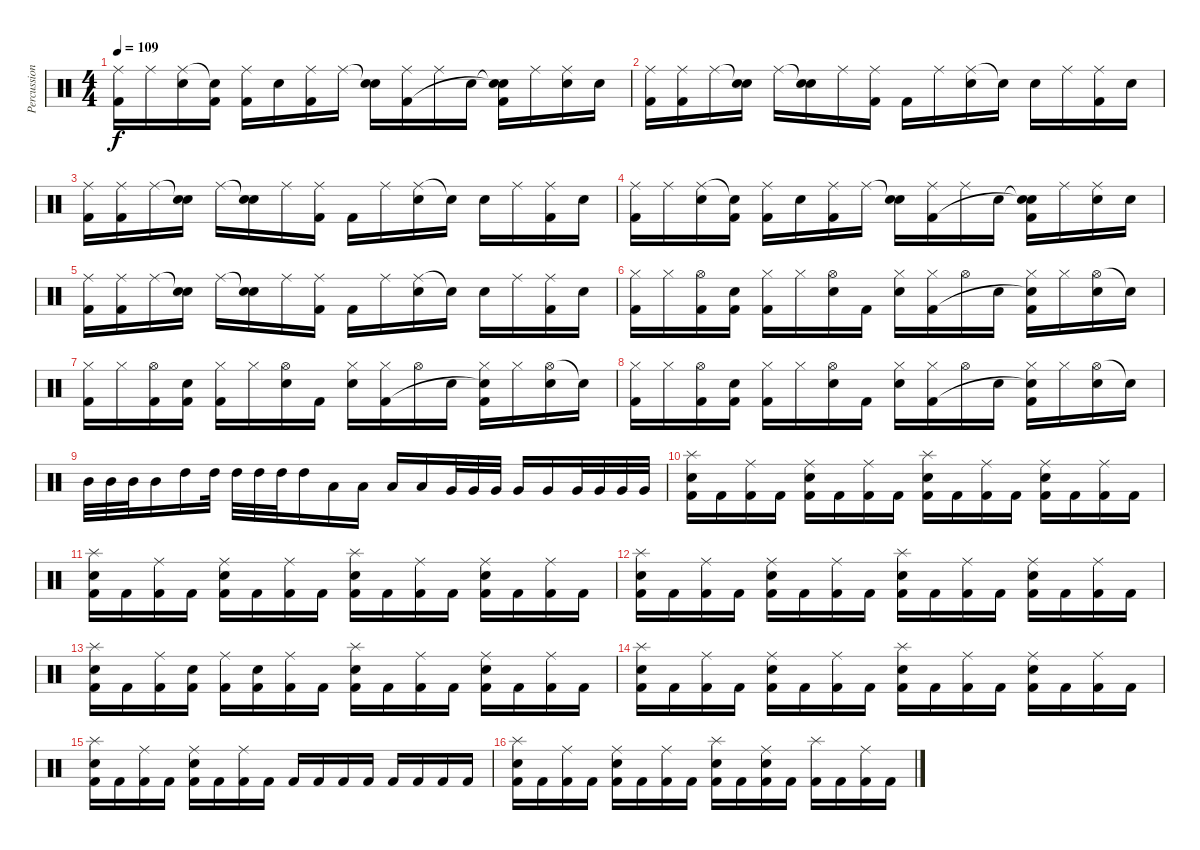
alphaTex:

\track ("Percussions" "Percussion") {instrument percussion}
\staff {score}
\articulation defaults
\ts (4 4)
\tempo 109
\clef neutral
\ks c
("Ride (middle)" "Kick (hit) 2").16{dy f} "Ride (middle)".16 ("Ride (middle)" "Electric Snare (hit)").16 ("Electric Snare (hit)"{t} "Kick (hit) 2").16 ("Ride (middle)" "Kick (hit) 2").16 "Electric Snare (hit)".16 ("Ride (middle)" "Kick (hit) 2").16 "Ride (middle)".16 ("Snare (hit)"{t} "Electric Snare (hit)").16 ("Ride (middle)" "Kick (hit) 2").16 "Ride (middle)".16 "Electric Snare (hit)".16 ("Snare (hit)"{t} "Snare (hit)"{t} "Kick (hit) 2").16 "Ride (middle)".16 ("Ride (middle)" "Electric Snare (hit)").16 "Electric Snare (hit)".16 |
("Ride (middle)" "Kick (hit) 2").16 ("Ride (middle)" "Kick (hit) 2").16 "Ride (middle)".16 ("Snare (hit)"{t} "Electric Snare (hit)").16 "Ride (middle)".16 ("Snare (hit)"{t} "Electric Snare (hit)").16 "Ride (middle)".16 ("Ride (middle)" "Kick (hit) 2").16 "Kick (hit) 2".16 "Ride (middle)".16 ("Ride (middle)" "Electric Snare (hit)").16 "Snare (hit)"{t}.16 "Electric Snare (hit)".16 "Ride (middle)".16 ("Ride (middle)" "Kick (hit) 2").16 "Electric Snare (hit)".16 |
("Ride (middle)" "Kick (hit) 2").16 ("Ride (middle)" "Kick (hit) 2").16 "Ride (middle)".16 ("Snare (hit)"{t} "Electric Snare (hit)").16 "Ride (middle)".16 ("Snare (hit)"{t} "Electric Snare (hit)").16 "Ride (middle)".16 ("Ride (middle)" "Kick (hit) 2").16 "Kick (hit) 2".16 "Ride (middle)".16 ("Ride (middle)" "Electric Snare (hit)").16 "Snare (hit)"{t}.16 "Electric Snare (hit)".16 "Ride (middle)".16 ("Ride (middle)" "Kick (hit) 2").16 "Electric Snare (hit)".16 |
("Ride (middle)" "Kick (hit) 2").16 "Ride (middle)".16 ("Ride (middle)" "Electric Snare (hit)").16 ("Electric Snare (hit)"{t} "Kick (hit) 2").16 ("Ride (middle)" "Kick (hit) 2").16 "Electric Snare (hit)".16 ("Ride (middle)" "Kick (hit) 2").16 "Ride (middle)".16 ("Snare (hit)"{t} "Electric Snare (hit)").16 ("Ride (middle)" "Kick (hit) 2").16 "Ride (middle)".16 "Electric Snare (hit)".16 ("Snare (hit)"{t} "Snare (hit)"{t} "Kick (hit) 2").16 "Ride (middle)".16 ("Ride (middle)" "Electric Snare (hit)").16 "Electric Snare (hit)".16 |
("Ride (middle)" "Kick (hit) 2").16 ("Ride (middle)" "Kick (hit) 2").16 "Ride (middle)".16 ("Snare (hit)"{t} "Electric Snare (hit)").16 "Ride (middle)".16 ("Snare (hit)"{t} "Electric Snare (hit)").16 "Ride (middle)".16 ("Ride (middle)" "Kick (hit) 2").16 "Kick (hit) 2".16 "Ride (middle)".16 ("Ride (middle)" "Electric Snare (hit)").16 "Snare (hit)"{t}.16 "Electric Snare (hit)".16 "Ride (middle)".16 ("Ride (middle)" "Kick (hit) 2").16 "Electric Snare (hit)".16 |
("Hi-Hat (closed)" "Kick (hit) 2").16 "Hi-Hat (closed)".16 ("Hi-Hat (open)" "Kick (hit) 2").16 ("Electric Snare (hit)" "Kick (hit) 2").16 ("Hi-Hat (closed)" "Kick (hit) 2").16 "Hi-Hat (closed)".16 ("Hi-Hat (open)" "Electric Snare (hit)").16 "Kick (hit) 2".16 ("Hi-Hat (closed)" "Electric Snare (hit)").16 ("Hi-Hat (closed)" "Kick (hit) 2").16 "Hi-Hat (open)".16 "Electric Snare (hit)".16 ("Hi-Hat (closed)" "Snare (hit)"{t} "Kick (hit) 2").16 "Hi-Hat (closed)".16 ("Hi-Hat (open)" "Electric Snare (hit)").16 "Electric Snare (hit)"{t}.16 |
("Hi-Hat (closed)" "Kick (hit) 2").16 "Hi-Hat (closed)".16 ("Hi-Hat (open)" "Kick (hit) 2").16 ("Electric Snare (hit)" "Kick (hit) 2").16 ("Hi-Hat (closed)" "Kick (hit) 2").16 "Hi-Hat (closed)".16 ("Hi-Hat (open)" "Electric Snare (hit)").16 "Kick (hit) 2".16 ("Hi-Hat (closed)" "Electric Snare (hit)").16 ("Hi-Hat (closed)" "Kick (hit) 2").16 "Hi-Hat (open)".16 "Electric Snare (hit)".16 ("Hi-Hat (closed)" "Snare (hit)"{t} "Kick (hit) 2").16 "Hi-Hat (closed)".16 ("Hi-Hat (open)" "Electric Snare (hit)").16 "Electric Snare (hit)"{t}.16 |
("Hi-Hat (closed)" "Kick (hit) 2").16 "Hi-Hat (closed)".16 ("Hi-Hat (open)" "Kick (hit) 2").16 ("Electric Snare (hit)" "Kick (hit) 2").16 ("Hi-Hat (closed)" "Kick (hit) 2").16 "Hi-Hat (closed)".16 ("Hi-Hat (open)" "Electric Snare (hit)").16 "Kick (hit) 2".16 ("Hi-Hat (closed)" "Electric Snare (hit)").16 ("Hi-Hat (closed)" "Kick (hit) 2").16 "Hi-Hat (open)".16 "Electric Snare (hit)".16 ("Hi-Hat (closed)" "Snare (hit)"{t} "Kick (hit) 2").16 "Hi-Hat (closed)".16 ("Hi-Hat (open)" "Electric Snare (hit)").16 "Electric Snare (hit)"{t}.16 |
"Mid Tom (hit)".32 "Mid Tom (hit)".32 "Mid Tom (hit)".32 "Mid Tom (hit)".16 "High Tom (hit)".16 "High Tom (hit)".32 "High Tom (hit)".32 "High Tom (hit)".32 "High Tom (hit)".32 "High Tom (hit)".16 "Low Tom (hit)".16 "Low Tom (hit)".16 "Low Tom (hit)".16 "Low Tom (hit)".16 "Very Low Tom (hit)".32 "Very Low Tom (hit)".32 "Very Low Tom (hit)".32 "Very Low Tom (hit)".16 "Very Low Tom (hit)".16 "Very Low Tom (hit)".32 "Very Low Tom (hit)".32 "Very Low Tom (hit)".32 "Very Low Tom (hit)".32 |
("Splash (hit)" "Electric Snare (hit)" "Kick (hit) 2").16 "Kick (hit) 2".16 ("Ride (middle)" "Kick (hit) 2").16 "Kick (hit) 2".16 ("Ride (middle)" "Electric Snare (hit)" "Kick (hit) 2").16 "Kick (hit) 2".16 ("Ride (middle)" "Kick (hit) 2").16 "Kick (hit) 2".16 ("Splash (hit)" "Electric Snare (hit)" "Kick (hit) 2").16 "Kick (hit) 2".16 ("Ride (middle)" "Kick (hit) 2").16 "Kick (hit) 2".16 ("Ride (middle)" "Electric Snare (hit)" "Kick (hit) 2").16 "Kick (hit) 2".16 ("Ride (middle)" "Kick (hit) 2").16 "Kick (hit) 2".16 |
("Splash (hit)" "Electric Snare (hit)" "Kick (hit) 2").16 "Kick (hit) 2".16 ("Ride (middle)" "Kick (hit) 2").16 "Kick (hit) 2".16 ("Ride (middle)" "Electric Snare (hit)" "Kick (hit) 2").16 "Kick (hit) 2".16 ("Ride (middle)" "Kick (hit) 2").16 "Kick (hit) 2".16 ("Splash (hit)" "Electric Snare (hit)" "Kick (hit) 2").16 "Kick (hit) 2".16 ("Ride (middle)" "Kick (hit) 2").16 "Kick (hit) 2".16 ("Ride (middle)" "Electric Snare (hit)" "Kick (hit) 2").16 "Kick (hit) 2".16 ("Ride (middle)" "Kick (hit) 2").16 "Kick (hit) 2".16 |
("Splash (hit)" "Electric Snare (hit)" "Kick (hit) 2").16 "Kick (hit) 2".16 ("Ride (middle)" "Kick (hit) 2").16 "Kick (hit) 2".16 ("Ride (middle)" "Electric Snare (hit)" "Kick (hit) 2").16 "Kick (hit) 2".16 ("Ride (middle)" "Kick (hit) 2").16 "Kick (hit) 2".16 ("Splash (hit)" "Electric Snare (hit)" "Kick (hit) 2").16 "Kick (hit) 2".16 ("Ride (middle)" "Kick (hit) 2").16 "Kick (hit) 2".16 ("Ride (middle)" "Electric Snare (hit)" "Kick (hit) 2").16 "Kick (hit) 2".16 ("Ride (middle)" "Kick (hit) 2").16 "Kick (hit) 2".16 |
("Splash (hit)" "Electric Snare (hit)" "Kick (hit) 2").16 "Kick (hit) 2".16 ("Ride (middle)" "Kick (hit) 2").16 ("Electric Snare (hit)" "Kick (hit) 2").16 ("Ride (middle)" "Kick (hit) 2").16 ("Electric Snare (hit)" "Kick (hit) 2").16 ("Ride (middle)" "Kick (hit) 2").16 "Kick (hit) 2".16 ("Splash (hit)" "Electric Snare (hit)" "Kick (hit) 2").16 "Kick (hit) 2".16 ("Ride (middle)" "Kick (hit) 2").16 "Kick (hit) 2".16 ("Ride (middle)" "Electric Snare (hit)" "Kick (hit) 2").16 "Kick (hit) 2".16 ("Ride (middle)" "Kick (hit) 2").16 "Kick (hit) 2".16 |
("Splash (hit)" "Electric Snare (hit)" "Kick (hit) 2").16 "Kick (hit) 2".16 ("Ride (middle)" "Kick (hit) 2").16 "Kick (hit) 2".16 ("Ride (middle)" "Electric Snare (hit)" "Kick (hit) 2").16 "Kick (hit) 2".16 ("Ride (middle)" "Kick (hit) 2").16 "Kick (hit) 2".16 ("Splash (hit)" "Electric Snare (hit)" "Kick (hit) 2").16 "Kick (hit) 2".16 ("Ride (middle)" "Kick (hit) 2").16 "Kick (hit) 2".16 ("Ride (middle)" "Electric Snare (hit)" "Kick (hit) 2").16 "Kick (hit) 2".16 ("Ride (middle)" "Kick (hit) 2").16 "Kick (hit) 2".16 |
("Splash (hit)" "Electric Snare (hit)" "Kick (hit) 2").16 "Kick (hit) 2".16 ("Ride (middle)" "Kick (hit) 2").16 "Kick (hit) 2".16 ("Ride (middle)" "Electric Snare (hit)" "Kick (hit) 2").16 "Kick (hit) 2".16 ("Ride (middle)" "Kick (hit) 2").16 "Kick (hit) 2".16 "Kick (hit) 2".16 "Kick (hit) 2".16 "Kick (hit) 2".16 "Kick (hit) 2".16 "Kick (hit) 2".16 "Kick (hit) 2".16 "Kick (hit) 2".16 "Kick (hit) 2".16 |
("Splash (hit)" "Electric Snare (hit)" "Kick (hit) 2").16 "Kick (hit) 2".16 ("Ride (middle)" "Kick (hit) 2").16 "Kick (hit) 2".16 ("Ride (middle)" "Electric Snare (hit)" "Kick (hit) 2").16 "Kick (hit) 2".16 ("Ride (middle)" "Kick (hit) 2").16 "Kick (hit) 2".16 ("Splash (hit)" "Electric Snare (hit)" "Kick (hit) 2").16 "Kick (hit) 2".16 ("Ride (middle)" "Electric Snare (hit)" "Kick (hit) 2").16 "Kick (hit) 2".16 ("Splash (hit)" "Kick (hit) 2").16 "Kick (hit) 2".16 ("Ride (middle)" "Kick (hit) 2").16 "Kick (hit) 2".16
